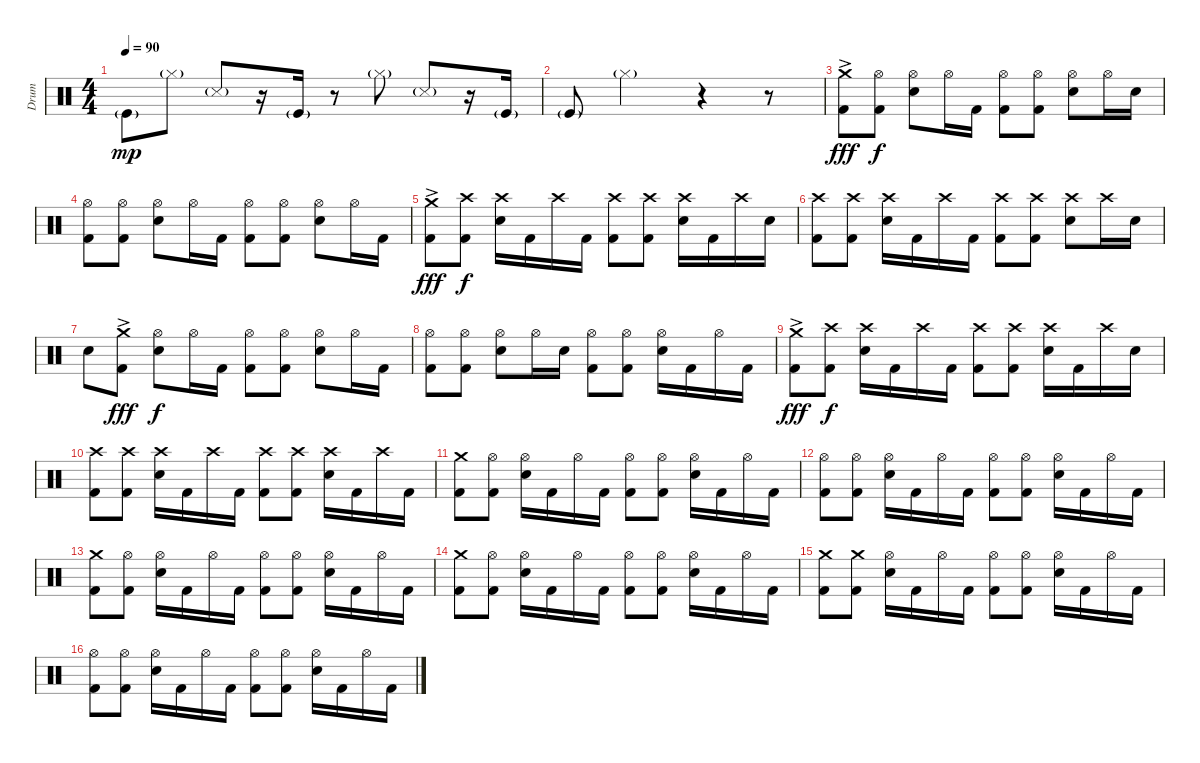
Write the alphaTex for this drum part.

\track ("Drum" "Drum") {instrument percussion}
\staff {score}
\articulation defaults
\ts (4 4)
\tempo 90
\clef neutral
\ks c "Kick (hit)"{g}.8{dy mp} "Hi-Hat (closed)"{g}.8 "Snare (side stick) 3"{g}.8
r.16 "Kick (hit)"{g}.16 r.8 "Hi-Hat (closed)"{g}.8 "Snare (side stick) 3"{g}.8 r.16 "Kick (hit)"{g}.16 |
"Kick (hit)"{g}.8 "Hi-Hat (closed)"{g}.2 r.4 r.8 |
("Crash medium (hit)"{ac} "Kick (hit) 2").8{dy fff} ("Hi-Hat (open)" "Kick (hit) 2").8{dy f} ("Hi-Hat (open)" "Snare (hit) 2").8 "Hi-Hat (open)".16 "Kick (hit) 2".16 ("Hi-Hat (open)" "Kick (hit) 2").8 ("Hi-Hat (open)" "Kick (hit) 2").8 ("Hi-Hat (open)" "Snare (hit) 2").8 "Hi-Hat (open)".16 "Snare (hit) 2".16 |
("Hi-Hat (open)" "Kick (hit) 2").8 ("Hi-Hat (open)" "Kick (hit) 2").8 ("Hi-Hat (open)" "Snare (hit) 2").8 "Hi-Hat (open)".16 "Kick (hit) 2".16 ("Hi-Hat (open)" "Kick (hit) 2").8 ("Hi-Hat (open)" "Kick (hit) 2").8 ("Hi-Hat (open)" "Snare (hit) 2").8 "Hi-Hat (open)".16 "Kick (hit) 2".16 |
("Crash medium (hit)"{ac} "Kick (hit) 2").8{dy fff} ("Crash high (hit)" "Kick (hit) 2").8{dy f} ("Crash high (hit)" "Snare (hit) 2").16 "Kick (hit) 2".16 "Crash high (hit)".16 "Kick (hit) 2".16 ("Crash high (hit)" "Kick (hit) 2").8 ("Crash high (hit)" "Kick (hit) 2").8 ("Crash high (hit)" "Snare (hit) 2").16 "Kick (hit) 2".16 "Crash high (hit)".16 "Snare (hit) 2".16 |
("Crash high (hit)" "Kick (hit) 2").8 ("Crash high (hit)" "Kick (hit) 2").8 ("Crash high (hit)" "Snare (hit) 2").16 "Kick (hit) 2".16 "Crash high (hit)".16 "Kick (hit) 2".16 ("Crash high (hit)" "Kick (hit) 2").8 ("Crash high (hit)" "Kick (hit) 2").8 ("Crash high (hit)" "Snare (hit) 2").8 "Crash high (hit)".16 "Snare (hit) 2".16 |
"Snare (hit) 2".8 ("Crash medium (hit)"{ac} "Kick (hit) 2").8{dy fff} ("Hi-Hat (open)" "Snare (hit) 2").8{dy f} "Hi-Hat (open)".16 "Kick (hit) 2".16 ("Hi-Hat (open)" "Kick (hit) 2").8 ("Hi-Hat (open)" "Kick (hit) 2").8 ("Hi-Hat (open)" "Snare (hit) 2").8 "Hi-Hat (open)".16 "Kick (hit) 2".16 |
("Hi-Hat (open)" "Kick (hit) 2").8 ("Hi-Hat (open)" "Kick (hit) 2").8 ("Hi-Hat (open)" "Snare (hit) 2").8 "Hi-Hat (open)".16 "Snare (hit) 2".16 ("Hi-Hat (open)" "Kick (hit) 2").8 ("Hi-Hat (open)" "Kick (hit) 2").8 ("Hi-Hat (open)" "Snare (hit) 2").16 "Kick (hit) 2".16 "Hi-Hat (open)".16 "Kick (hit) 2".16 |
("Crash medium (hit)"{ac} "Kick (hit) 2").8{dy fff} ("Crash high (hit)" "Kick (hit) 2").8{dy f} ("Crash high (hit)" "Snare (hit) 2").16 "Kick (hit) 2".16 "Crash high (hit)".16 "Kick (hit) 2".16 ("Crash high (hit)" "Kick (hit) 2").8 ("Crash high (hit)" "Kick (hit) 2").8 ("Crash high (hit)" "Snare (hit) 2").16 "Kick (hit) 2".16 "Crash high (hit)".16 "Snare (hit) 2".16 |
("Crash high (hit)" "Kick (hit) 2").8 ("Crash high (hit)" "Kick (hit) 2").8 ("Crash high (hit)" "Snare (hit) 2").16 "Kick (hit) 2".16 "Crash high (hit)".16 "Kick (hit) 2".16 ("Crash high (hit)" "Kick (hit) 2").8 ("Crash high (hit)" "Kick (hit) 2").8 ("Crash high (hit)" "Snare (hit) 2").16 "Kick (hit) 2".16 "Crash high (hit)".16 "Kick (hit) 2".16 |
("Crash medium (hit)" "Kick (hit) 2").8 ("Hi-Hat (open)" "Kick (hit) 2").8 ("Hi-Hat (open)" "Snare (hit) 2").16 "Kick (hit) 2".16 "Hi-Hat (open)".16 "Kick (hit) 2".16 ("Hi-Hat (open)" "Kick (hit) 2").8 ("Hi-Hat (open)" "Kick (hit) 2").8 ("Hi-Hat (open)" "Snare (hit) 2").16 "Kick (hit) 2".16 "Hi-Hat (open)".16 "Kick (hit) 2".16 |
("Hi-Hat (open)" "Kick (hit) 2").8 ("Hi-Hat (open)" "Kick (hit) 2").8 ("Hi-Hat (open)" "Snare (hit) 2").16 "Kick (hit) 2".16 "Hi-Hat (open)".16 "Kick (hit) 2".16 ("Hi-Hat (open)" "Kick (hit) 2").8 ("Hi-Hat (open)" "Kick (hit) 2").8 ("Hi-Hat (open)" "Snare (hit) 2").16 "Kick (hit) 2".16 "Hi-Hat (open)".16 "Kick (hit) 2".16 |
("Crash medium (hit)" "Kick (hit) 2").8 ("Hi-Hat (open)" "Kick (hit) 2").8 ("Hi-Hat (open)" "Snare (hit) 2").16 "Kick (hit) 2".16 "Hi-Hat (open)".16 "Kick (hit) 2".16 ("Hi-Hat (open)" "Kick (hit) 2").8 ("Hi-Hat (open)" "Kick (hit) 2").8 ("Hi-Hat (open)" "Snare (hit) 2").16 "Kick (hit) 2".16 "Hi-Hat (open)".16 "Kick (hit) 2".16 |
("Crash medium (hit)" "Kick (hit) 2").8 ("Hi-Hat (open)" "Kick (hit) 2").8 ("Hi-Hat (open)" "Snare (hit) 2").16 "Kick (hit) 2".16 "Hi-Hat (open)".16 "Kick (hit) 2".16 ("Hi-Hat (open)" "Kick (hit) 2").8 ("Hi-Hat (open)" "Kick (hit) 2").8 ("Hi-Hat (open)" "Snare (hit) 2").16 "Kick (hit) 2".16 "Hi-Hat (open)".16 "Kick (hit) 2".16 |
("Crash medium (hit)" "Kick (hit) 2").8 ("Crash medium (hit)" "Kick (hit) 2").8 ("Hi-Hat (open)" "Snare (hit) 2").16 "Kick (hit) 2".16 "Hi-Hat (open)".16 "Kick (hit) 2".16 ("Hi-Hat (open)" "Kick (hit) 2").8 ("Hi-Hat (open)" "Kick (hit) 2").8 ("Hi-Hat (open)" "Snare (hit) 2").16 "Kick (hit) 2".16 "Hi-Hat (open)".16 "Kick (hit) 2".16 |
("Hi-Hat (open)" "Kick (hit) 2").8 ("Hi-Hat (open)" "Kick (hit) 2").8 ("Hi-Hat (open)" "Snare (hit) 2").16 "Kick (hit) 2".16 "Hi-Hat (open)".16 "Kick (hit) 2".16 ("Hi-Hat (open)" "Kick (hit) 2").8 ("Hi-Hat (open)" "Kick (hit) 2").8 ("Hi-Hat (open)" "Snare (hit) 2").16 "Kick (hit) 2".16 "Hi-Hat (open)".16 "Kick (hit) 2".16
